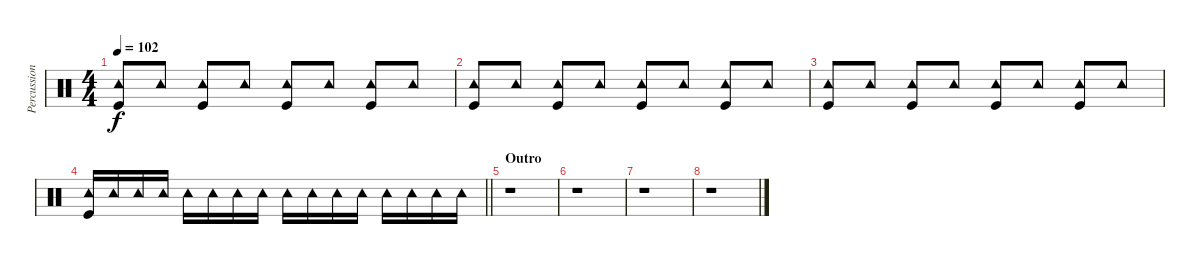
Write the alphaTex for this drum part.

\track ("Percussion" "Percussion") {instrument percussion}
\staff {score}
\articulation defaults
\ts (4 4)
\tempo 102
\clef neutral
\ks c
("Tambourine (hit)" "Kick (hit)").8{dy f} "Tambourine (hit)".8 ("Tambourine (hit)" "Kick (hit)").8 "Tambourine (hit)".8 ("Tambourine (hit)" "Kick (hit)").8 "Tambourine (hit)".8 ("Tambourine (hit)" "Kick (hit)").8 "Tambourine (hit)".8 |
("Tambourine (hit)" "Kick (hit)").8 "Tambourine (hit)".8 ("Tambourine (hit)" "Kick (hit)").8 "Tambourine (hit)".8 ("Tambourine (hit)" "Kick (hit)").8 "Tambourine (hit)".8 ("Tambourine (hit)" "Kick (hit)").8 "Tambourine (hit)".8 |
("Tambourine (hit)" "Kick (hit)").8 "Tambourine (hit)".8 ("Tambourine (hit)" "Kick (hit)").8 "Tambourine (hit)".8 ("Tambourine (hit)" "Kick (hit)").8 "Tambourine (hit)".8 ("Tambourine (hit)" "Kick (hit)").8 "Tambourine (hit)".8 |
\barLineRight lightlight
("Tambourine (hit)" "Kick (hit)").16{volume 1} "Tambourine (hit)".16 "Tambourine (hit)".16 "Tambourine (hit)".16 "Tambourine (hit)".16 "Tambourine (hit)".16 "Tambourine (hit)".16 "Tambourine (hit)".16 "Tambourine (hit)".16 "Tambourine (hit)".16 "Tambourine (hit)".16 "Tambourine (hit)".16 "Tambourine (hit)".16 "Tambourine (hit)".16 "Tambourine (hit)".16 "Tambourine (hit)".16 |
\section ("" "Outro")
r.1 |
r.1 |
r.1 |
r.1
